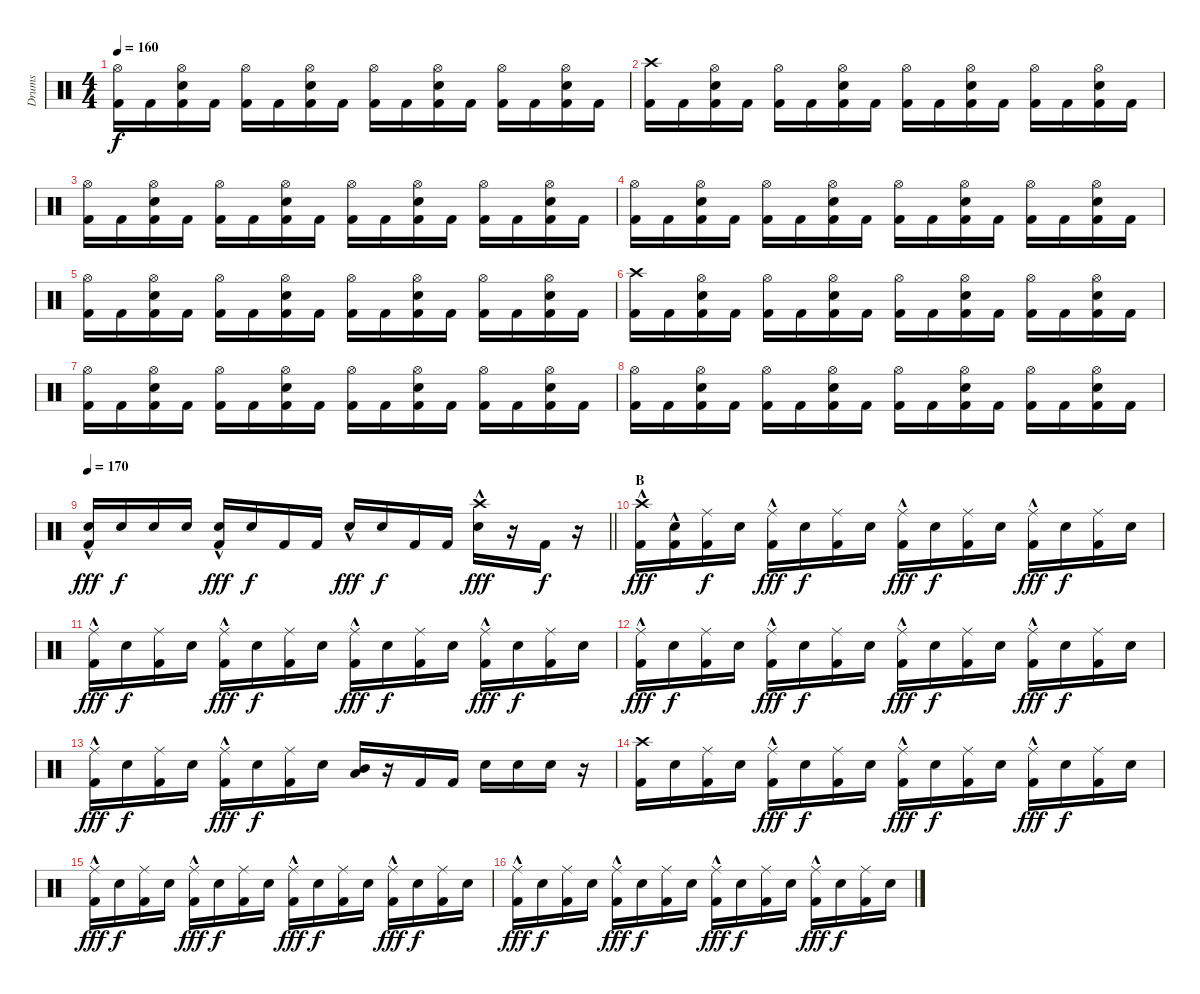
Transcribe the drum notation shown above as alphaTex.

\track ("Drums" "Drums") {instrument percussion}
\staff {score}
\articulation defaults
\ts (4 4)
\tempo 160
\clef neutral
\ks c
("Hi-Hat (open)" "Kick (hit) 2").16{dy f} "Kick (hit) 2".16 ("Hi-Hat (open)" "Snare (hit) 2" "Kick (hit) 2").16 "Kick (hit) 2".16 ("Hi-Hat (open)" "Kick (hit) 2").16 "Kick (hit) 2".16 ("Hi-Hat (open)" "Snare (hit) 2" "Kick (hit) 2").16 "Kick (hit) 2".16 ("Hi-Hat (open)" "Kick (hit) 2").16 "Kick (hit) 2".16 ("Hi-Hat (open)" "Snare (hit) 2" "Kick (hit) 2").16 "Kick (hit) 2".16 ("Hi-Hat (open)" "Kick (hit) 2").16 "Kick (hit) 2".16 ("Hi-Hat (open)" "Snare (hit) 2" "Kick (hit) 2").16 "Kick (hit) 2".16 |
("Crash high (hit)" "Kick (hit) 2").16 "Kick (hit) 2".16 ("Hi-Hat (open)" "Snare (hit) 2" "Kick (hit) 2").16 "Kick (hit) 2".16 ("Hi-Hat (open)" "Kick (hit) 2").16 "Kick (hit) 2".16 ("Hi-Hat (open)" "Snare (hit) 2" "Kick (hit) 2").16 "Kick (hit) 2".16 ("Hi-Hat (open)" "Kick (hit) 2").16 "Kick (hit) 2".16 ("Hi-Hat (open)" "Snare (hit) 2" "Kick (hit) 2").16 "Kick (hit) 2".16 ("Hi-Hat (open)" "Kick (hit) 2").16 "Kick (hit) 2".16 ("Hi-Hat (open)" "Snare (hit) 2" "Kick (hit) 2").16 "Kick (hit) 2".16 |
("Hi-Hat (open)" "Kick (hit) 2").16 "Kick (hit) 2".16 ("Hi-Hat (open)" "Snare (hit) 2" "Kick (hit) 2").16 "Kick (hit) 2".16 ("Hi-Hat (open)" "Kick (hit) 2").16 "Kick (hit) 2".16 ("Hi-Hat (open)" "Snare (hit) 2" "Kick (hit) 2").16 "Kick (hit) 2".16 ("Hi-Hat (open)" "Kick (hit) 2").16 "Kick (hit) 2".16 ("Hi-Hat (open)" "Snare (hit) 2" "Kick (hit) 2").16 "Kick (hit) 2".16 ("Hi-Hat (open)" "Kick (hit) 2").16 "Kick (hit) 2".16 ("Hi-Hat (open)" "Snare (hit) 2" "Kick (hit) 2").16 "Kick (hit) 2".16 |
("Hi-Hat (open)" "Kick (hit) 2").16 "Kick (hit) 2".16 ("Hi-Hat (open)" "Snare (hit) 2" "Kick (hit) 2").16 "Kick (hit) 2".16 ("Hi-Hat (open)" "Kick (hit) 2").16 "Kick (hit) 2".16 ("Hi-Hat (open)" "Snare (hit) 2" "Kick (hit) 2").16 "Kick (hit) 2".16 ("Hi-Hat (open)" "Kick (hit) 2").16 "Kick (hit) 2".16 ("Hi-Hat (open)" "Snare (hit) 2" "Kick (hit) 2").16 "Kick (hit) 2".16 ("Hi-Hat (open)" "Kick (hit) 2").16 "Kick (hit) 2".16 ("Hi-Hat (open)" "Snare (hit) 2" "Kick (hit) 2").16 "Kick (hit) 2".16 |
("Hi-Hat (open)" "Kick (hit) 2").16 "Kick (hit) 2".16 ("Hi-Hat (open)" "Snare (hit) 2" "Kick (hit) 2").16 "Kick (hit) 2".16 ("Hi-Hat (open)" "Kick (hit) 2").16 "Kick (hit) 2".16 ("Hi-Hat (open)" "Snare (hit) 2" "Kick (hit) 2").16 "Kick (hit) 2".16 ("Hi-Hat (open)" "Kick (hit) 2").16 "Kick (hit) 2".16 ("Hi-Hat (open)" "Snare (hit) 2" "Kick (hit) 2").16 "Kick (hit) 2".16 ("Hi-Hat (open)" "Kick (hit) 2").16 "Kick (hit) 2".16 ("Hi-Hat (open)" "Snare (hit) 2" "Kick (hit) 2").16 "Kick (hit) 2".16 |
("Crash high (hit)" "Kick (hit) 2").16 "Kick (hit) 2".16 ("Hi-Hat (open)" "Snare (hit) 2" "Kick (hit) 2").16 "Kick (hit) 2".16 ("Hi-Hat (open)" "Kick (hit) 2").16 "Kick (hit) 2".16 ("Hi-Hat (open)" "Snare (hit) 2" "Kick (hit) 2").16 "Kick (hit) 2".16 ("Hi-Hat (open)" "Kick (hit) 2").16 "Kick (hit) 2".16 ("Hi-Hat (open)" "Snare (hit) 2" "Kick (hit) 2").16 "Kick (hit) 2".16 ("Hi-Hat (open)" "Kick (hit) 2").16 "Kick (hit) 2".16 ("Hi-Hat (open)" "Snare (hit) 2" "Kick (hit) 2").16 "Kick (hit) 2".16 |
("Hi-Hat (open)" "Kick (hit) 2").16 "Kick (hit) 2".16 ("Hi-Hat (open)" "Snare (hit) 2" "Kick (hit) 2").16 "Kick (hit) 2".16 ("Hi-Hat (open)" "Kick (hit) 2").16 "Kick (hit) 2".16 ("Hi-Hat (open)" "Snare (hit) 2" "Kick (hit) 2").16 "Kick (hit) 2".16 ("Hi-Hat (open)" "Kick (hit) 2").16 "Kick (hit) 2".16 ("Hi-Hat (open)" "Snare (hit) 2" "Kick (hit) 2").16 "Kick (hit) 2".16 ("Hi-Hat (open)" "Kick (hit) 2").16 "Kick (hit) 2".16 ("Hi-Hat (open)" "Snare (hit) 2" "Kick (hit) 2").16 "Kick (hit) 2".16 |
("Hi-Hat (open)" "Kick (hit) 2").16 "Kick (hit) 2".16 ("Hi-Hat (open)" "Snare (hit) 2" "Kick (hit) 2").16 "Kick (hit) 2".16 ("Hi-Hat (open)" "Kick (hit) 2").16 "Kick (hit) 2".16 ("Hi-Hat (open)" "Snare (hit) 2" "Kick (hit) 2").16 "Kick (hit) 2".16 ("Hi-Hat (open)" "Kick (hit) 2").16 "Kick (hit) 2".16 ("Hi-Hat (open)" "Snare (hit) 2" "Kick (hit) 2").16 "Kick (hit) 2".16 ("Hi-Hat (open)" "Kick (hit) 2").16 "Kick (hit) 2".16 ("Hi-Hat (open)" "Snare (hit) 2" "Kick (hit) 2").16 "Kick (hit) 2".16 |
\tempo 170
\barLineRight lightlight
("Snare (hit) 2"{hac} "Kick (hit) 2").16{dy fff} "Snare (hit) 2".16{dy f} "Snare (hit) 2".16 "Snare (hit) 2".16 ("Snare (hit) 2"{hac} "Kick (hit) 2").16{dy fff} "Snare (hit) 2".16{dy f} "Kick (hit) 2".16 "Kick (hit) 2".16 "Snare (hit) 2"{hac}.16{dy fff} "Snare (hit) 2".16{dy f} "Kick (hit) 2".16 "Kick (hit) 2".16 ("Crash high (hit)" "Snare (hit) 2"{hac}).16{dy fff} r.16 "Kick (hit) 2".16{dy f} r.16 |
\section ("" "B")
("Crash high (hit)" "Kick (hit) 2"{hac}).16{dy fff} ("Snare (hit) 2" "Kick (hit) 2"{hac}).16 ("Ride (middle)" "Kick (hit) 2").16{dy f} "Snare (hit) 2".16 ("Ride (middle)"{hac} "Kick (hit) 2").16{dy fff} "Snare (hit) 2".16{dy f} ("Ride (middle)" "Kick (hit) 2").16 "Snare (hit) 2".16 ("Ride (middle)"{hac} "Kick (hit) 2").16{dy fff} "Snare (hit) 2".16{dy f} ("Ride (middle)" "Kick (hit) 2").16 "Snare (hit) 2".16 ("Ride (middle)"{hac} "Kick (hit) 2").16{dy fff} "Snare (hit) 2".16{dy f} ("Ride (middle)" "Kick (hit) 2").16 "Snare (hit) 2".16 |
("Ride (middle)"{hac} "Kick (hit) 2").16{dy fff} "Snare (hit) 2".16{dy f} ("Ride (middle)" "Kick (hit) 2").16 "Snare (hit) 2".16 ("Ride (middle)"{hac} "Kick (hit) 2").16{dy fff} "Snare (hit) 2".16{dy f} ("Ride (middle)" "Kick (hit) 2").16 "Snare (hit) 2".16 ("Ride (middle)"{hac} "Kick (hit) 2").16{dy fff} "Snare (hit) 2".16{dy f} ("Ride (middle)" "Kick (hit) 2").16 "Snare (hit) 2".16 ("Ride (middle)"{hac} "Kick (hit) 2").16{dy fff} "Snare (hit) 2".16{dy f} ("Ride (middle)" "Kick (hit) 2").16 "Snare (hit) 2".16 |
("Ride (middle)"{hac} "Kick (hit) 2").16{dy fff} "Snare (hit) 2".16{dy f} ("Ride (middle)" "Kick (hit) 2").16 "Snare (hit) 2".16 ("Ride (middle)"{hac} "Kick (hit) 2").16{dy fff} "Snare (hit) 2".16{dy f} ("Ride (middle)" "Kick (hit) 2").16 "Snare (hit) 2".16 ("Ride (middle)"{hac} "Kick (hit) 2").16{dy fff} "Snare (hit) 2".16{dy f} ("Ride (middle)" "Kick (hit) 2").16 "Snare (hit) 2".16 ("Ride (middle)"{hac} "Kick (hit) 2").16{dy fff} "Snare (hit) 2".16{dy f} ("Ride (middle)" "Kick (hit) 2").16 "Snare (hit) 2".16 |
("Ride (middle)"{hac} "Kick (hit) 2").16{dy fff} "Snare (hit) 2".16{dy f} ("Ride (middle)" "Kick (hit) 2").16 "Snare (hit) 2".16 ("Ride (middle)"{hac} "Kick (hit) 2").16{dy fff} "Snare (hit) 2".16{dy f} ("Ride (middle)" "Kick (hit) 2").16 "Snare (hit) 2".16 ("Low Tom (hit)" "Mid Tom (hit)").16 r.16 "Kick (hit) 2".16 "Kick (hit) 2".16 "Snare (hit) 2".16 "Snare (hit) 2".16 "Snare (hit) 2".16 r.16 |
("Crash high (hit)" "Kick (hit) 2").16 "Snare (hit) 2".16 ("Ride (middle)" "Kick (hit) 2").16 "Snare (hit) 2".16 ("Ride (middle)"{hac} "Kick (hit) 2").16{dy fff} "Snare (hit) 2".16{dy f} ("Ride (middle)" "Kick (hit) 2").16 "Snare (hit) 2".16 ("Ride (middle)"{hac} "Kick (hit) 2").16{dy fff} "Snare (hit) 2".16{dy f} ("Ride (middle)" "Kick (hit) 2").16 "Snare (hit) 2".16 ("Ride (middle)"{hac} "Kick (hit) 2").16{dy fff} "Snare (hit) 2".16{dy f} ("Ride (middle)" "Kick (hit) 2").16 "Snare (hit) 2".16 |
("Ride (middle)"{hac} "Kick (hit) 2").16{dy fff} "Snare (hit) 2".16{dy f} ("Ride (middle)" "Kick (hit) 2").16 "Snare (hit) 2".16 ("Ride (middle)"{hac} "Kick (hit) 2").16{dy fff} "Snare (hit) 2".16{dy f} ("Ride (middle)" "Kick (hit) 2").16 "Snare (hit) 2".16 ("Ride (middle)"{hac} "Kick (hit) 2").16{dy fff} "Snare (hit) 2".16{dy f} ("Ride (middle)" "Kick (hit) 2").16 "Snare (hit) 2".16 ("Ride (middle)"{hac} "Kick (hit) 2").16{dy fff} "Snare (hit) 2".16{dy f} ("Ride (middle)" "Kick (hit) 2").16 "Snare (hit) 2".16 |
("Ride (middle)"{hac} "Kick (hit) 2").16{dy fff} "Snare (hit) 2".16{dy f} ("Ride (middle)" "Kick (hit) 2").16 "Snare (hit) 2".16 ("Ride (middle)"{hac} "Kick (hit) 2").16{dy fff} "Snare (hit) 2".16{dy f} ("Ride (middle)" "Kick (hit) 2").16 "Snare (hit) 2".16 ("Ride (middle)"{hac} "Kick (hit) 2").16{dy fff} "Snare (hit) 2".16{dy f} ("Ride (middle)" "Kick (hit) 2").16 "Snare (hit) 2".16 ("Ride (middle)"{hac} "Kick (hit) 2").16{dy fff} "Snare (hit) 2".16{dy f} ("Ride (middle)" "Kick (hit) 2").16 "Snare (hit) 2".16
